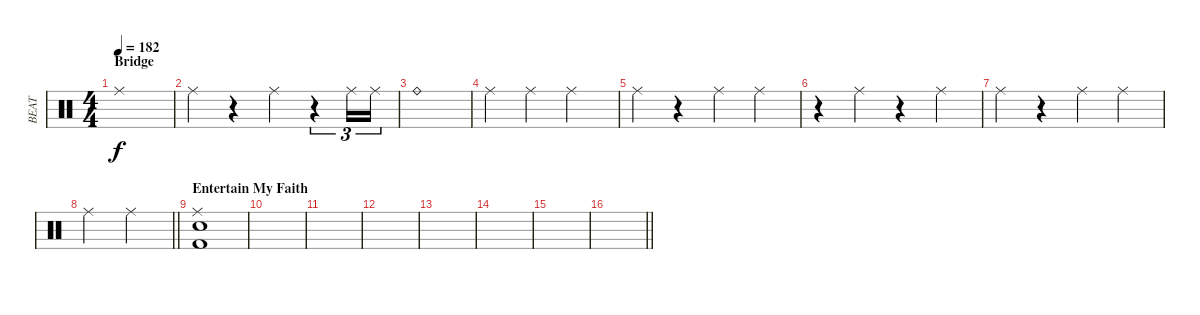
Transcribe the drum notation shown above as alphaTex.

\track ("BEAT" "BEAT") {instrument percussion}
\staff {score}
\articulation defaults
\ts (4 4)
\section ("" "Bridge")
\tempo 182
\clef neutral
\ks c "Ride (middle)".1{dy f}
|
"Ride (middle)".4 r.4 "Ride (middle)".4 r.4{tu (3 2)} "Ride (middle)".16{tu (3 2)} "Ride (middle)".16{tu (3 2)} |
"Ride (bell)".1 |
"Ride (middle)".4 "Ride (middle)".4 "Ride (middle)".2 |
"Ride (middle)".4 r.4 "Ride (middle)".4 "Ride (middle)".4 |
r.4 "Ride (middle)".4 r.4 "Ride (middle)".4 |
"Ride (middle)".4 r.4 "Ride (middle)".4 "Ride (middle)".4 |
\barLineRight lightlight "Ride (middle)".2 "Ride (middle)".2
|
\section ("" "Entertain My Faith")
("Ride (middle)" "Electric Snare (hit)" "Kick (hit) 2").1 |
|
|
|
|
|
|
\barLineRight lightlight
